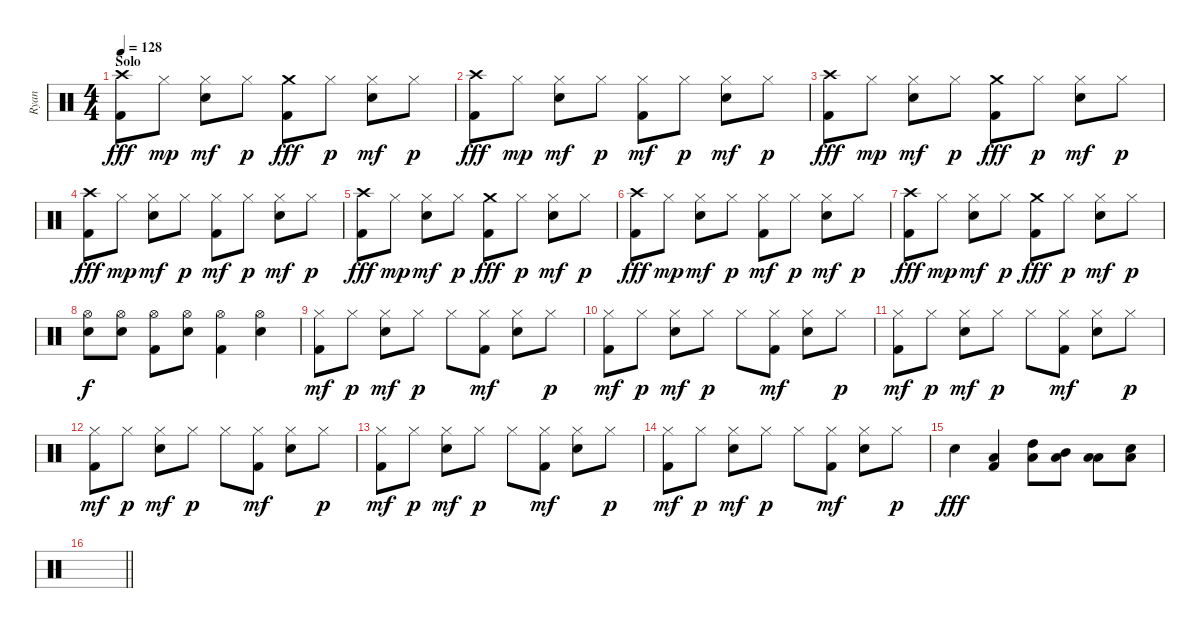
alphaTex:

\track ("Ryan" "Ryan") {instrument percussion}
\staff {score}
\articulation defaults
\ts (4 4)
\section ("" "Solo")
\tempo 128
\clef neutral
\ks c
("Kick (hit) 2" "Crash high (hit)").8{dy fff} "Hi-Hat (closed)".8{dy mp} ("Snare (hit) 2" "Hi-Hat (closed)").8{dy mf} "Hi-Hat (closed)".8{dy p} ("Kick (hit) 2" "Crash medium (hit)").8{dy fff} "Hi-Hat (closed)".8{dy p} ("Snare (hit) 2" "Hi-Hat (closed)").8{dy mf} "Hi-Hat (closed)".8{dy p} |
("Kick (hit) 2" "Crash high (hit)").8{dy fff} "Hi-Hat (closed)".8{dy mp} ("Snare (hit) 2" "Hi-Hat (closed)").8{dy mf} "Hi-Hat (closed)".8{dy p} ("Kick (hit) 2" "Hi-Hat (closed)").8{dy mf} "Hi-Hat (closed)".8{dy p} ("Snare (hit) 2" "Hi-Hat (closed)").8{dy mf} "Hi-Hat (closed)".8{dy p} |
("Kick (hit) 2" "Crash high (hit)").8{dy fff} "Hi-Hat (closed)".8{dy mp} ("Snare (hit) 2" "Hi-Hat (closed)").8{dy mf} "Hi-Hat (closed)".8{dy p} ("Kick (hit) 2" "Crash medium (hit)").8{dy fff} "Hi-Hat (closed)".8{dy p} ("Snare (hit) 2" "Hi-Hat (closed)").8{dy mf} "Hi-Hat (closed)".8{dy p} |
("Kick (hit) 2" "Crash high (hit)").8{dy fff} "Hi-Hat (closed)".8{dy mp} ("Snare (hit) 2" "Hi-Hat (closed)").8{dy mf} "Hi-Hat (closed)".8{dy p} ("Kick (hit) 2" "Hi-Hat (closed)").8{dy mf} "Hi-Hat (closed)".8{dy p} ("Snare (hit) 2" "Hi-Hat (closed)").8{dy mf} "Hi-Hat (closed)".8{dy p} |
("Kick (hit) 2" "Crash high (hit)").8{dy fff} "Hi-Hat (closed)".8{dy mp} ("Snare (hit) 2" "Hi-Hat (closed)").8{dy mf} "Hi-Hat (closed)".8{dy p} ("Kick (hit) 2" "Crash medium (hit)").8{dy fff} "Hi-Hat (closed)".8{dy p} ("Snare (hit) 2" "Hi-Hat (closed)").8{dy mf} "Hi-Hat (closed)".8{dy p} |
("Kick (hit) 2" "Crash high (hit)").8{dy fff} "Hi-Hat (closed)".8{dy mp} ("Snare (hit) 2" "Hi-Hat (closed)").8{dy mf} "Hi-Hat (closed)".8{dy p} ("Kick (hit) 2" "Hi-Hat (closed)").8{dy mf} "Hi-Hat (closed)".8{dy p} ("Snare (hit) 2" "Hi-Hat (closed)").8{dy mf} "Hi-Hat (closed)".8{dy p} |
("Kick (hit) 2" "Crash high (hit)").8{dy fff} "Hi-Hat (closed)".8{dy mp} ("Snare (hit) 2" "Hi-Hat (closed)").8{dy mf} "Hi-Hat (closed)".8{dy p} ("Kick (hit) 2" "Crash medium (hit)").8{dy fff} "Hi-Hat (closed)".8{dy p} ("Snare (hit) 2" "Hi-Hat (closed)").8{dy mf} "Hi-Hat (closed)".8{dy p} |
("Snare (hit) 2" "Hi-Hat (open)").8{dy f} ("Snare (hit) 2" "Hi-Hat (open)").8 ("Kick (hit) 2" "Hi-Hat (open)").8 ("Snare (hit) 2" "Hi-Hat (open)").8 ("Kick (hit) 2" "Hi-Hat (open)").4 ("Snare (hit) 2" "Hi-Hat (open)").4 |
("Kick (hit) 2" "Hi-Hat (closed)").8{dy mf} "Hi-Hat (closed)".8{dy p} ("Snare (hit) 2" "Hi-Hat (closed)").8{dy mf} "Hi-Hat (closed)".8{dy p} "Hi-Hat (closed)".8 ("Kick (hit) 2" "Hi-Hat (closed)").8{dy mf} ("Snare (hit) 2" "Hi-Hat (closed)").8 "Hi-Hat (closed)".8{dy p} |
("Kick (hit) 2" "Hi-Hat (closed)").8{dy mf} "Hi-Hat (closed)".8{dy p} ("Snare (hit) 2" "Hi-Hat (closed)").8{dy mf} "Hi-Hat (closed)".8{dy p} "Hi-Hat (closed)".8 ("Kick (hit) 2" "Hi-Hat (closed)").8{dy mf} ("Snare (hit) 2" "Hi-Hat (closed)").8 "Hi-Hat (closed)".8{dy p} |
("Kick (hit) 2" "Hi-Hat (closed)").8{dy mf} "Hi-Hat (closed)".8{dy p} ("Snare (hit) 2" "Hi-Hat (closed)").8{dy mf} "Hi-Hat (closed)".8{dy p} "Hi-Hat (closed)".8 ("Kick (hit) 2" "Hi-Hat (closed)").8{dy mf} ("Snare (hit) 2" "Hi-Hat (closed)").8 "Hi-Hat (closed)".8{dy p} |
("Kick (hit) 2" "Hi-Hat (closed)").8{dy mf} "Hi-Hat (closed)".8{dy p} ("Snare (hit) 2" "Hi-Hat (closed)").8{dy mf} "Hi-Hat (closed)".8{dy p} "Hi-Hat (closed)".8 ("Kick (hit) 2" "Hi-Hat (closed)").8{dy mf} ("Snare (hit) 2" "Hi-Hat (closed)").8 "Hi-Hat (closed)".8{dy p} |
("Kick (hit) 2" "Hi-Hat (closed)").8{dy mf} "Hi-Hat (closed)".8{dy p} ("Snare (hit) 2" "Hi-Hat (closed)").8{dy mf} "Hi-Hat (closed)".8{dy p} "Hi-Hat (closed)".8 ("Kick (hit) 2" "Hi-Hat (closed)").8{dy mf} ("Snare (hit) 2" "Hi-Hat (closed)").8 "Hi-Hat (closed)".8{dy p} |
("Kick (hit) 2" "Hi-Hat (closed)").8{dy mf} "Hi-Hat (closed)".8{dy p} ("Snare (hit) 2" "Hi-Hat (closed)").8{dy mf} "Hi-Hat (closed)".8{dy p} "Hi-Hat (closed)".8 ("Kick (hit) 2" "Hi-Hat (closed)").8{dy mf} ("Snare (hit) 2" "Hi-Hat (closed)").8 "Hi-Hat (closed)".8{dy p} |
"Snare (hit) 2".4{dy fff} ("Kick (hit) 2" "Low Floor Tom (hit)").4 ("High Tom (hit)" "Low Floor Tom (hit)").8 ("Mid Tom (hit)" "Low Floor Tom (hit)").8 ("Low Tom (hit)" "Low Floor Tom (hit)").8 ("Snare (hit) 2" "Low Floor Tom (hit)").8 |
\barLineRight lightlight
